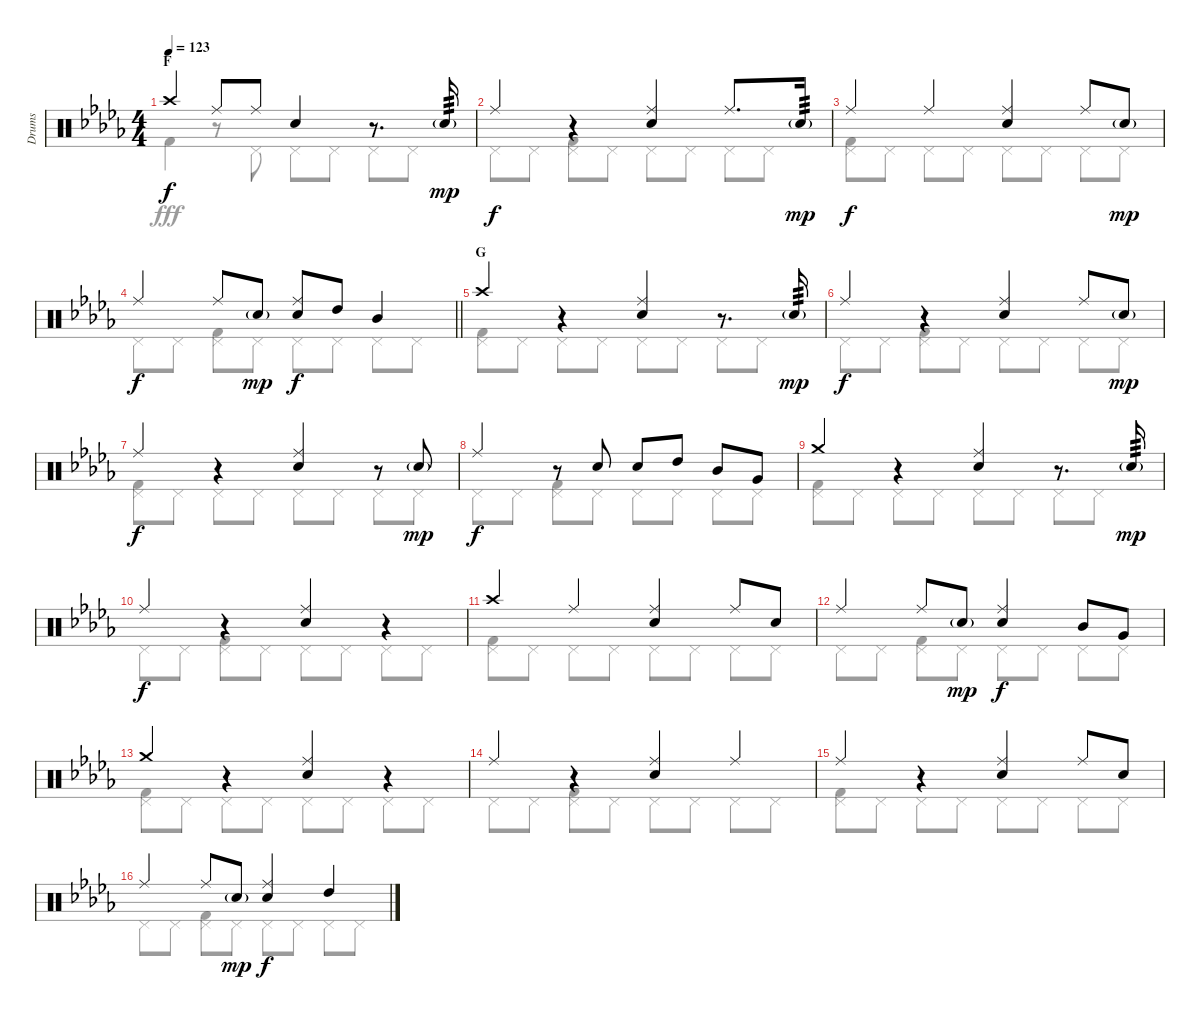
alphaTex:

\track ("Drums" "Drums") {instrument percussion}
\staff {score}
\articulation defaults
\voice
\ts (4 4)
\section ("" "F")
\tempo 123
\clef neutral
\ks db "Crash high (hit)".4{dy f} "Ride (middle)".8 "Ride (middle)".8 "Snare (hit) 2".4
r.8{d} "Snare (hit) 2"{g}.16{tp 3 dy mp} |
"Ride (middle)".4{dy f} r.4 ("Ride (middle)" "Snare (hit) 2").4 "Ride (middle)".8{d} "Snare (hit) 2"{g}.16{tp 3 dy mp} |
"Ride (middle)".4{dy f} "Ride (middle)".4 ("Ride (middle)" "Snare (hit) 2").4 "Ride (middle)".8 "Snare (hit) 2"{g}.8{dy mp} |
\barLineRight lightlight "Ride (middle)".4{dy f} "Ride (middle)".8 "Snare (hit) 2"{g}.8{dy mp}
("Ride (middle)" "Snare (hit) 2").8{dy f} "High Tom (hit)".8 "Mid Tom (hit)".4 |
\section ("" "G")
"Crash high (hit)".4 r.4 ("Ride (middle)" "Snare (hit) 2").4 r.8{d} "Snare (hit) 2"{g}.16{tp 3 dy mp} |
"Ride (middle)".4{dy f} r.4 ("Ride (middle)" "Snare (hit) 2").4 "Ride (middle)".8 "Snare (hit) 2"{g}.8{dy mp} |
"Ride (middle)".4{dy f} r.4 ("Ride (middle)" "Snare (hit) 2").4 r.8 "Snare (hit) 2"{g}.8{dy mp} |
"Ride (middle)".4{dy f} r.8 "Snare (hit) 2".8 "Snare (hit) 2".8 "High Tom (hit)".8 "Mid Tom (hit)".8 "Very Low Tom (hit)".8 |
"Crash medium (hit)".4 r.4 ("Ride (middle)" "Snare (hit) 2").4 r.8{d} "Snare (hit) 2"{g}.16{tp 3 dy mp} |
"Ride (middle)".4{dy f} r.4 ("Ride (middle)" "Snare (hit) 2").4 r.4 |
"Crash high (hit)".4 "Ride (middle)".4 ("Ride (middle)" "Snare (hit) 2").4 "Ride (middle)".8 "Snare (hit) 2".8 |
"Ride (middle)".4 "Ride (middle)".8 "Snare (hit) 2"{g}.8{dy mp} ("Ride (middle)" "Snare (hit) 2").4{dy f} "Mid Tom (hit)".8 "Very Low Tom (hit)".8 |
"Crash medium (hit)".4 r.4 ("Ride (middle)" "Snare (hit) 2").4 r.4 |
"Ride (middle)".4 r.4 ("Ride (middle)" "Snare (hit) 2").4 "Ride (middle)".4 |
"Ride (middle)".4 r.4 ("Ride (middle)" "Snare (hit) 2").4 "Ride (middle)".8 "Snare (hit) 2".8 |
"Ride (middle)".4 "Ride (middle)".8 "Snare (hit) 2"{g}.8{dy mp} ("Ride (middle)" "Snare (hit) 2").4{dy f} "High Tom (hit)".4
\voice
\clef neutral
\ottava regular
\simile none
\ks db "Kick (hit) 2".4{dy fff}
r.8 "Pedal Hi-Hat (hit)".8 "Pedal Hi-Hat (hit)".8 "Pedal Hi-Hat (hit)".8 "Pedal Hi-Hat (hit)".8 "Pedal Hi-Hat (hit)".8 |
"Pedal Hi-Hat (hit)".8 "Pedal Hi-Hat (hit)".8 ("Pedal Hi-Hat (hit)" "Kick (hit) 2").8 "Pedal Hi-Hat (hit)".8 "Pedal Hi-Hat (hit)".8 "Pedal Hi-Hat (hit)".8 "Pedal Hi-Hat (hit)".8 "Pedal Hi-Hat (hit)".8 |
("Pedal Hi-Hat (hit)" "Kick (hit) 2").8 "Pedal Hi-Hat (hit)".8 "Pedal Hi-Hat (hit)".8 "Pedal Hi-Hat (hit)".8 "Pedal Hi-Hat (hit)".8 "Pedal Hi-Hat (hit)".8 "Pedal Hi-Hat (hit)".8 "Pedal Hi-Hat (hit)".8 |
\barLineRight lightlight "Pedal Hi-Hat (hit)".8 "Pedal Hi-Hat (hit)".8
("Pedal Hi-Hat (hit)" "Kick (hit) 2").8 "Pedal Hi-Hat (hit)".8 "Pedal Hi-Hat (hit)".8 "Pedal Hi-Hat (hit)".8 "Pedal Hi-Hat (hit)".8 "Pedal Hi-Hat (hit)".8 |
("Pedal Hi-Hat (hit)" "Kick (hit) 2").8 "Pedal Hi-Hat (hit)".8 "Pedal Hi-Hat (hit)".8 "Pedal Hi-Hat (hit)".8 "Pedal Hi-Hat (hit)".8 "Pedal Hi-Hat (hit)".8 "Pedal Hi-Hat (hit)".8 "Pedal Hi-Hat (hit)".8 |
"Pedal Hi-Hat (hit)".8 "Pedal Hi-Hat (hit)".8 ("Pedal Hi-Hat (hit)" "Kick (hit) 2").8 "Pedal Hi-Hat (hit)".8 "Pedal Hi-Hat (hit)".8 "Pedal Hi-Hat (hit)".8 "Pedal Hi-Hat (hit)".8 "Pedal Hi-Hat (hit)".8 |
("Pedal Hi-Hat (hit)" "Kick (hit) 2").8 "Pedal Hi-Hat (hit)".8 "Pedal Hi-Hat (hit)".8 "Pedal Hi-Hat (hit)".8 "Pedal Hi-Hat (hit)".8 "Pedal Hi-Hat (hit)".8 "Pedal Hi-Hat (hit)".8 "Pedal Hi-Hat (hit)".8 |
"Pedal Hi-Hat (hit)".8 "Pedal Hi-Hat (hit)".8 ("Pedal Hi-Hat (hit)" "Kick (hit) 2").8 "Pedal Hi-Hat (hit)".8 "Pedal Hi-Hat (hit)".8 "Pedal Hi-Hat (hit)".8 "Pedal Hi-Hat (hit)".8 "Pedal Hi-Hat (hit)".8 |
("Pedal Hi-Hat (hit)" "Kick (hit) 2").8 "Pedal Hi-Hat (hit)".8 "Pedal Hi-Hat (hit)".8 "Pedal Hi-Hat (hit)".8 "Pedal Hi-Hat (hit)".8 "Pedal Hi-Hat (hit)".8 "Pedal Hi-Hat (hit)".8 "Pedal Hi-Hat (hit)".8 |
"Pedal Hi-Hat (hit)".8 "Pedal Hi-Hat (hit)".8 ("Pedal Hi-Hat (hit)" "Kick (hit) 2").8 "Pedal Hi-Hat (hit)".8 "Pedal Hi-Hat (hit)".8 "Pedal Hi-Hat (hit)".8 "Pedal Hi-Hat (hit)".8 "Pedal Hi-Hat (hit)".8 |
("Pedal Hi-Hat (hit)" "Kick (hit) 2").8 "Pedal Hi-Hat (hit)".8 "Pedal Hi-Hat (hit)".8 "Pedal Hi-Hat (hit)".8 "Pedal Hi-Hat (hit)".8 "Pedal Hi-Hat (hit)".8 "Pedal Hi-Hat (hit)".8 "Pedal Hi-Hat (hit)".8 |
"Pedal Hi-Hat (hit)".8 "Pedal Hi-Hat (hit)".8 ("Pedal Hi-Hat (hit)" "Kick (hit) 2").8 "Pedal Hi-Hat (hit)".8 "Pedal Hi-Hat (hit)".8 "Pedal Hi-Hat (hit)".8 "Pedal Hi-Hat (hit)".8 "Pedal Hi-Hat (hit)".8 |
("Pedal Hi-Hat (hit)" "Kick (hit) 2").8 "Pedal Hi-Hat (hit)".8 "Pedal Hi-Hat (hit)".8 "Pedal Hi-Hat (hit)".8 "Pedal Hi-Hat (hit)".8 "Pedal Hi-Hat (hit)".8 "Pedal Hi-Hat (hit)".8 "Pedal Hi-Hat (hit)".8 |
"Pedal Hi-Hat (hit)".8 "Pedal Hi-Hat (hit)".8 ("Pedal Hi-Hat (hit)" "Kick (hit) 2").8 "Pedal Hi-Hat (hit)".8 "Pedal Hi-Hat (hit)".8 "Pedal Hi-Hat (hit)".8 "Pedal Hi-Hat (hit)".8 "Pedal Hi-Hat (hit)".8 |
("Pedal Hi-Hat (hit)" "Kick (hit) 2").8 "Pedal Hi-Hat (hit)".8 "Pedal Hi-Hat (hit)".8 "Pedal Hi-Hat (hit)".8 "Pedal Hi-Hat (hit)".8 "Pedal Hi-Hat (hit)".8 "Pedal Hi-Hat (hit)".8 "Pedal Hi-Hat (hit)".8 |
"Pedal Hi-Hat (hit)".8 "Pedal Hi-Hat (hit)".8 ("Pedal Hi-Hat (hit)" "Kick (hit) 2").8 "Pedal Hi-Hat (hit)".8 "Pedal Hi-Hat (hit)".8 "Pedal Hi-Hat (hit)".8 "Pedal Hi-Hat (hit)".8 "Pedal Hi-Hat (hit)".8
